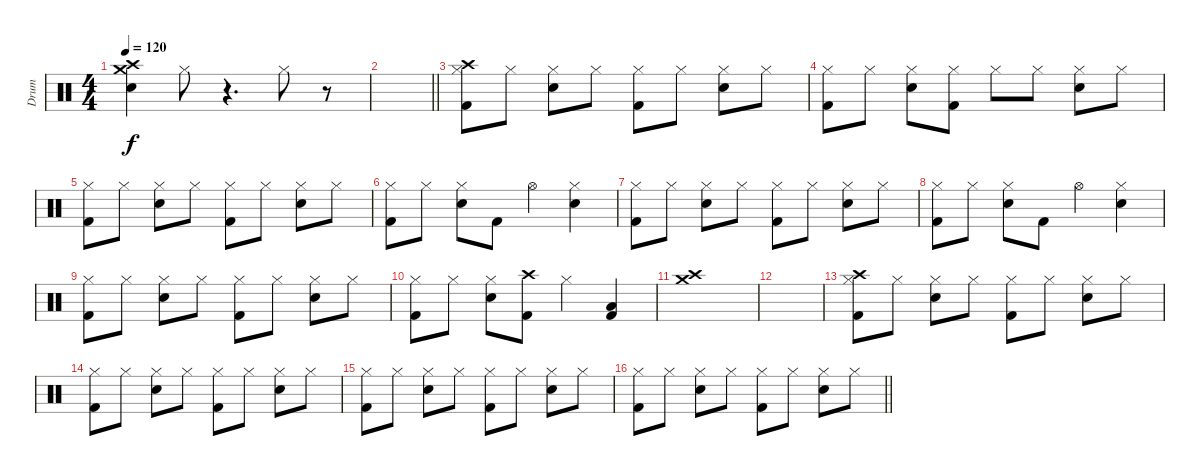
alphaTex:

\track ("Drum" "Drum") {instrument percussion}
\staff {score}
\articulation defaults
\ts (4 4)
\tempo 120
\clef neutral
\ks c
("Crash high (hit)" "Crash medium (hit)" "Snare (hit) 2").4{dy f} "Hi-Hat (closed)".8 r.4{d} "Hi-Hat (closed)".8 r.8 |
\barLineRight lightlight
|
\section ("" "")
("Crash high (hit)" "Hi-Hat (closed)" "Kick (hit) 2").8 "Hi-Hat (closed)".8 ("Hi-Hat (closed)" "Snare (hit) 2").8 "Hi-Hat (closed)".8 ("Hi-Hat (closed)" "Kick (hit) 2").8 "Hi-Hat (closed)".8 ("Hi-Hat (closed)" "Snare (hit) 2").8 "Hi-Hat (closed)".8 |
("Hi-Hat (closed)" "Kick (hit) 2").8 "Hi-Hat (closed)".8 ("Hi-Hat (closed)" "Snare (hit) 2").8 ("Hi-Hat (closed)" "Kick (hit) 2").8 "Hi-Hat (closed)".8 "Hi-Hat (closed)".8 ("Hi-Hat (closed)" "Snare (hit) 2").8 "Hi-Hat (closed)".8 |
("Hi-Hat (closed)" "Kick (hit) 2").8 "Hi-Hat (closed)".8 ("Hi-Hat (closed)" "Snare (hit) 2").8 "Hi-Hat (closed)".8 ("Hi-Hat (closed)" "Kick (hit) 2").8 "Hi-Hat (closed)".8 ("Hi-Hat (closed)" "Snare (hit) 2").8 "Hi-Hat (closed)".8 |
("Hi-Hat (closed)" "Kick (hit) 2").8 "Hi-Hat (closed)".8 ("Hi-Hat (closed)" "Snare (hit) 2").8 "Kick (hit) 2".8 "Hi-Hat (open)".4 ("Hi-Hat (closed)" "Snare (hit) 2").4 |
("Hi-Hat (closed)" "Kick (hit) 2").8 "Hi-Hat (closed)".8 ("Hi-Hat (closed)" "Snare (hit) 2").8 "Hi-Hat (closed)".8 ("Hi-Hat (closed)" "Kick (hit) 2").8 "Hi-Hat (closed)".8 ("Hi-Hat (closed)" "Snare (hit) 2").8 "Hi-Hat (closed)".8 |
("Hi-Hat (closed)" "Kick (hit) 2").8 "Hi-Hat (closed)".8 ("Hi-Hat (closed)" "Snare (hit) 2").8 "Kick (hit) 2".8 "Hi-Hat (open)".4 ("Hi-Hat (closed)" "Snare (hit) 2").4 |
("Hi-Hat (closed)" "Kick (hit) 2").8 "Hi-Hat (closed)".8 ("Hi-Hat (closed)" "Snare (hit) 2").8 "Hi-Hat (closed)".8 ("Hi-Hat (closed)" "Kick (hit) 2").8 "Hi-Hat (closed)".8 ("Hi-Hat (closed)" "Snare (hit) 2").8 "Hi-Hat (closed)".8 |
("Hi-Hat (closed)" "Kick (hit) 2").8 "Hi-Hat (closed)".8 ("Hi-Hat (closed)" "Snare (hit) 2").8 ("Crash high (hit)" "Kick (hit) 2").8 "Hi-Hat (closed)".4 ("Low Floor Tom (hit)" "Kick (hit) 2").4 |
("Crash medium (hit)" "Crash high (hit)").1 |
|
("Crash high (hit)" "Hi-Hat (closed)" "Kick (hit) 2").8 "Hi-Hat (closed)".8 ("Hi-Hat (closed)" "Snare (hit) 2").8 "Hi-Hat (closed)".8 ("Hi-Hat (closed)" "Kick (hit) 2").8 "Hi-Hat (closed)".8 ("Hi-Hat (closed)" "Snare (hit) 2").8 "Hi-Hat (closed)".8 |
("Hi-Hat (closed)" "Kick (hit) 2").8 "Hi-Hat (closed)".8 ("Hi-Hat (closed)" "Snare (hit) 2").8 "Hi-Hat (closed)".8 ("Hi-Hat (closed)" "Kick (hit) 2").8 "Hi-Hat (closed)".8 ("Hi-Hat (closed)" "Snare (hit) 2").8 "Hi-Hat (closed)".8 |
("Hi-Hat (closed)" "Kick (hit) 2").8 "Hi-Hat (closed)".8 ("Hi-Hat (closed)" "Snare (hit) 2").8 "Hi-Hat (closed)".8 ("Hi-Hat (closed)" "Kick (hit) 2").8 "Hi-Hat (closed)".8 ("Hi-Hat (closed)" "Snare (hit) 2").8 "Hi-Hat (closed)".8 |
\barLineRight lightlight
("Hi-Hat (closed)" "Kick (hit) 2").8 "Hi-Hat (closed)".8 ("Hi-Hat (closed)" "Snare (hit) 2").8 "Hi-Hat (closed)".8 ("Hi-Hat (closed)" "Kick (hit) 2").8 "Hi-Hat (closed)".8 ("Hi-Hat (closed)" "Snare (hit) 2").8 "Hi-Hat (closed)".8
